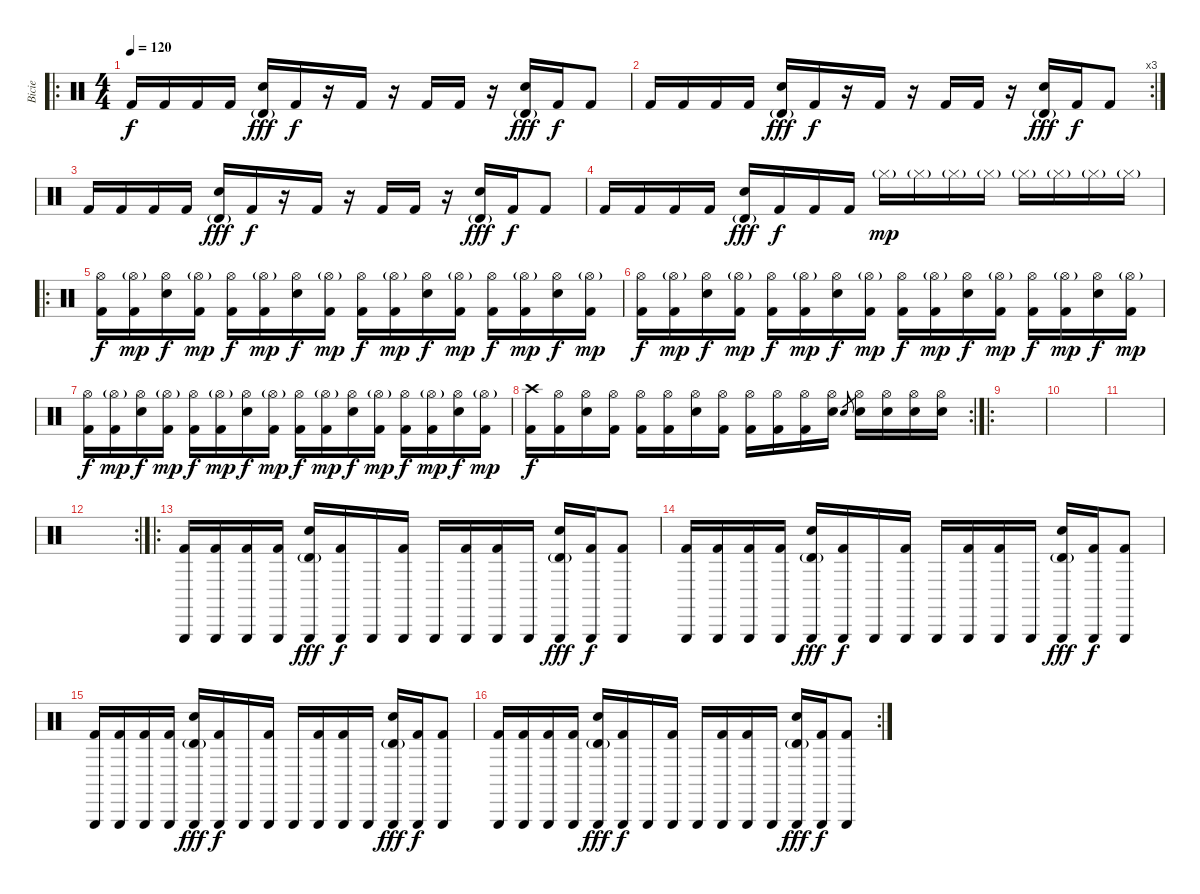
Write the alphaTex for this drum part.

\track ("Bicie" "Bicie") {instrument percussion}
\staff {score}
\articulation defaults
\ro
\ts (4 4)
\tempo 120
\clef neutral
\ks c "Kick (hit) 2".16{dy f} "Kick (hit) 2".16 "Kick (hit) 2".16 "Kick (hit) 2".16
("Timbale high (hit)"{g} "Snare (hit) 2").16{dy fff} "Kick (hit) 2".16{dy f} r.16 "Kick (hit) 2".16 r.16 "Kick (hit) 2".16 "Kick (hit) 2".16 r.16 ("Timbale high (hit)"{g} "Snare (hit) 2").16{dy fff} "Kick (hit) 2".16{dy f} "Kick (hit) 2".8 |
\rc 3 "Kick (hit) 2".16 "Kick (hit) 2".16 "Kick (hit) 2".16 "Kick (hit) 2".16
("Timbale high (hit)"{g} "Snare (hit) 2").16{dy fff} "Kick (hit) 2".16{dy f} r.16 "Kick (hit) 2".16 r.16 "Kick (hit) 2".16 "Kick (hit) 2".16 r.16 ("Timbale high (hit)"{g} "Snare (hit) 2").16{dy fff} "Kick (hit) 2".16{dy f} "Kick (hit) 2".8 |
"Kick (hit) 2".16 "Kick (hit) 2".16 "Kick (hit) 2".16 "Kick (hit) 2".16 ("Timbale high (hit)"{g} "Snare (hit) 2").16{dy fff} "Kick (hit) 2".16{dy f} r.16 "Kick (hit) 2".16 r.16 "Kick (hit) 2".16 "Kick (hit) 2".16 r.16 ("Timbale high (hit)"{g} "Snare (hit) 2").16{dy fff} "Kick (hit) 2".16{dy f} "Kick (hit) 2".8 |
"Kick (hit) 2".16 "Kick (hit) 2".16 "Kick (hit) 2".16 "Kick (hit) 2".16 ("Timbale high (hit)"{g} "Snare (hit) 2").16{dy fff} "Kick (hit) 2".16{dy f} "Kick (hit) 2".16 "Kick (hit) 2".16 "Hi-Hat (closed)"{g}.16{dy mp} "Hi-Hat (closed)"{g}.16 "Hi-Hat (closed)"{g}.16 "Hi-Hat (closed)"{g}.16 "Hi-Hat (closed)"{g}.16 "Hi-Hat (closed)"{g}.16 "Hi-Hat (closed)"{g}.16 "Hi-Hat (closed)"{g}.16 |
\ro
("Hi-Hat (open)" "Kick (hit) 2").16{dy f} ("Hi-Hat (open)"{g} "Kick (hit) 2").16{dy mp} ("Hi-Hat (open)" "Electric Snare (hit)").16{dy f} ("Hi-Hat (open)"{g} "Kick (hit) 2").16{dy mp} ("Hi-Hat (open)" "Kick (hit) 2").16{dy f} ("Hi-Hat (open)"{g} "Kick (hit) 2").16{dy mp} ("Hi-Hat (open)" "Electric Snare (hit)").16{dy f} ("Hi-Hat (open)"{g} "Kick (hit) 2").16{dy mp} ("Hi-Hat (open)" "Kick (hit) 2").16{dy f} ("Hi-Hat (open)"{g} "Kick (hit) 2").16{dy mp} ("Hi-Hat (open)" "Electric Snare (hit)").16{dy f} ("Hi-Hat (open)"{g} "Kick (hit) 2").16{dy mp} ("Hi-Hat (open)" "Kick (hit) 2").16{dy f} ("Hi-Hat (open)"{g} "Kick (hit) 2").16{dy mp} ("Hi-Hat (open)" "Electric Snare (hit)").16{dy f} ("Hi-Hat (open)"{g} "Kick (hit) 2").16{dy mp} |
("Hi-Hat (open)" "Kick (hit) 2").16{dy f} ("Hi-Hat (open)"{g} "Kick (hit) 2").16{dy mp} ("Hi-Hat (open)" "Electric Snare (hit)").16{dy f} ("Hi-Hat (open)"{g} "Kick (hit) 2").16{dy mp} ("Hi-Hat (open)" "Kick (hit) 2").16{dy f} ("Hi-Hat (open)"{g} "Kick (hit) 2").16{dy mp} ("Hi-Hat (open)" "Electric Snare (hit)").16{dy f} ("Hi-Hat (open)"{g} "Kick (hit) 2").16{dy mp} ("Hi-Hat (open)" "Kick (hit) 2").16{dy f} ("Hi-Hat (open)"{g} "Kick (hit) 2").16{dy mp} ("Hi-Hat (open)" "Electric Snare (hit)").16{dy f} ("Hi-Hat (open)"{g} "Kick (hit) 2").16{dy mp} ("Hi-Hat (open)" "Kick (hit) 2").16{dy f} ("Hi-Hat (open)"{g} "Kick (hit) 2").16{dy mp} ("Hi-Hat (open)" "Electric Snare (hit)").16{dy f} ("Hi-Hat (open)"{g} "Kick (hit) 2").16{dy mp} |
("Hi-Hat (open)" "Kick (hit) 2").16{dy f} ("Hi-Hat (open)"{g} "Kick (hit) 2").16{dy mp} ("Hi-Hat (open)" "Electric Snare (hit)").16{dy f} ("Hi-Hat (open)"{g} "Kick (hit) 2").16{dy mp} ("Hi-Hat (open)" "Kick (hit) 2").16{dy f} ("Hi-Hat (open)"{g} "Kick (hit) 2").16{dy mp} ("Hi-Hat (open)" "Electric Snare (hit)").16{dy f} ("Hi-Hat (open)"{g} "Kick (hit) 2").16{dy mp} ("Hi-Hat (open)" "Kick (hit) 2").16{dy f} ("Hi-Hat (open)"{g} "Kick (hit) 2").16{dy mp} ("Hi-Hat (open)" "Electric Snare (hit)").16{dy f} ("Hi-Hat (open)"{g} "Kick (hit) 2").16{dy mp} ("Hi-Hat (open)" "Kick (hit) 2").16{dy f} ("Hi-Hat (open)"{g} "Kick (hit) 2").16{dy mp} ("Hi-Hat (open)" "Electric Snare (hit)").16{dy f} ("Hi-Hat (open)"{g} "Kick (hit) 2").16{dy mp} |
\rc 2
("Crash high (hit)" "Kick (hit) 2").16{dy f} ("Hi-Hat (open)" "Kick (hit) 2").16 ("Hi-Hat (open)" "Electric Snare (hit)").16 ("Hi-Hat (open)" "Kick (hit) 2").16 ("Hi-Hat (open)" "Kick (hit) 2").16 ("Hi-Hat (open)" "Kick (hit) 2").16 ("Hi-Hat (open)" "Electric Snare (hit)").16 ("Hi-Hat (open)" "Kick (hit) 2").16 ("Hi-Hat (open)" "Kick (hit) 2").16 ("Hi-Hat (open)" "Kick (hit) 2").16 ("Hi-Hat (open)" "Kick (hit) 2").16 ("Hi-Hat (open)" "Electric Snare (hit)").16 "Electric Snare (hit)".8{gr} ("Hi-Hat (open)" "Electric Snare (hit)").16 ("Hi-Hat (open)" "Electric Snare (hit)").16 ("Hi-Hat (open)" "Electric Snare (hit)").16 ("Hi-Hat (open)" "Electric Snare (hit)").16 |
\ro
|
|
|
\rc 2
|
\ro
("Triangle (hit)" "Kick (hit) 2").16 ("Triangle (hit)" "Kick (hit) 2").16 ("Triangle (hit)" "Kick (hit) 2").16 ("Triangle (hit)" "Kick (hit) 2").16 ("Triangle (hit)" "Timbale high (hit)"{g} "Snare (hit) 2").16{dy fff} ("Triangle (hit)" "Kick (hit) 2").16{dy f} "Triangle (hit)".16 ("Triangle (hit)" "Kick (hit) 2").16 "Triangle (hit)".16 ("Triangle (hit)" "Kick (hit) 2").16 ("Triangle (hit)" "Kick (hit) 2").16 "Triangle (hit)".16 ("Triangle (hit)" "Timbale high (hit)"{g} "Snare (hit) 2").16{dy fff} ("Triangle (hit)" "Kick (hit) 2").16{dy f} ("Triangle (hit)" "Kick (hit) 2").8 |
("Triangle (hit)" "Kick (hit) 2").16 ("Triangle (hit)" "Kick (hit) 2").16 ("Triangle (hit)" "Kick (hit) 2").16 ("Triangle (hit)" "Kick (hit) 2").16 ("Triangle (hit)" "Timbale high (hit)"{g} "Snare (hit) 2").16{dy fff} ("Triangle (hit)" "Kick (hit) 2").16{dy f} "Triangle (hit)".16 ("Triangle (hit)" "Kick (hit) 2").16 "Triangle (hit)".16 ("Triangle (hit)" "Kick (hit) 2").16 ("Triangle (hit)" "Kick (hit) 2").16 "Triangle (hit)".16 ("Triangle (hit)" "Timbale high (hit)"{g} "Snare (hit) 2").16{dy fff} ("Triangle (hit)" "Kick (hit) 2").16{dy f} ("Triangle (hit)" "Kick (hit) 2").8 |
("Triangle (hit)" "Kick (hit) 2").16 ("Triangle (hit)" "Kick (hit) 2").16 ("Triangle (hit)" "Kick (hit) 2").16 ("Triangle (hit)" "Kick (hit) 2").16 ("Triangle (hit)" "Timbale high (hit)"{g} "Snare (hit) 2").16{dy fff} ("Triangle (hit)" "Kick (hit) 2").16{dy f} "Triangle (hit)".16 ("Triangle (hit)" "Kick (hit) 2").16 "Triangle (hit)".16 ("Triangle (hit)" "Kick (hit) 2").16 ("Triangle (hit)" "Kick (hit) 2").16 "Triangle (hit)".16 ("Triangle (hit)" "Timbale high (hit)"{g} "Snare (hit) 2").16{dy fff} ("Triangle (hit)" "Kick (hit) 2").16{dy f} ("Triangle (hit)" "Kick (hit) 2").8 |
\rc 2
("Triangle (hit)" "Kick (hit) 2").16 ("Triangle (hit)" "Kick (hit) 2").16 ("Triangle (hit)" "Kick (hit) 2").16 ("Triangle (hit)" "Kick (hit) 2").16 ("Triangle (hit)" "Timbale high (hit)"{g} "Snare (hit) 2").16{dy fff} ("Triangle (hit)" "Kick (hit) 2").16{dy f} "Triangle (hit)".16 ("Triangle (hit)" "Kick (hit) 2").16 "Triangle (hit)".16 ("Triangle (hit)" "Kick (hit) 2").16 ("Triangle (hit)" "Kick (hit) 2").16 "Triangle (hit)".16 ("Triangle (hit)" "Timbale high (hit)"{g} "Snare (hit) 2").16{dy fff} ("Triangle (hit)" "Kick (hit) 2").16{dy f} ("Triangle (hit)" "Kick (hit) 2").8
